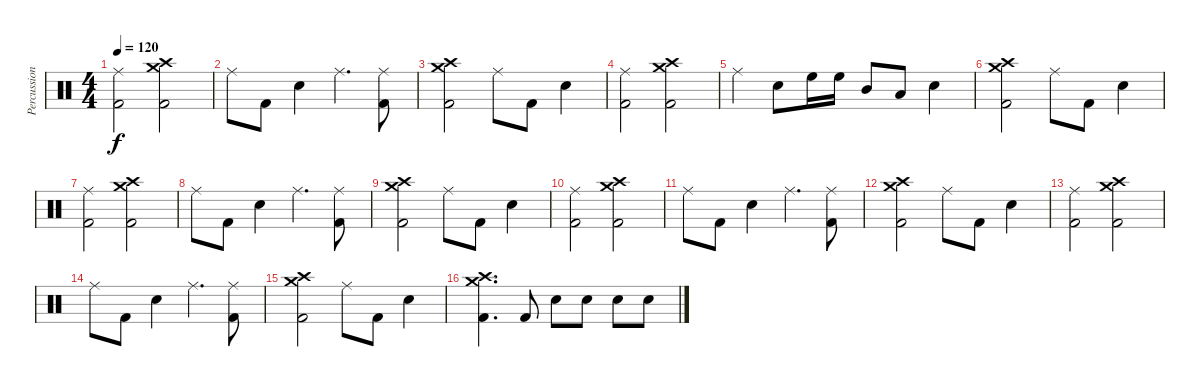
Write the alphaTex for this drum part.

\track ("Percussion" "Percussion") {instrument percussion}
\staff {score}
\articulation defaults
\ts (4 4)
\tempo 120
\clef neutral
\ks c
("Kick (hit) 2" "Ride (middle)").2{dy f} ("Crash high (hit)" "Crash medium (hit)" "Kick (hit) 2").2 |
"Ride (middle)".8 "Kick (hit) 2".8 "Snare (hit) 2".4 "Ride (middle)".4{d} ("Kick (hit) 2" "Ride (middle)").8 |
("Crash high (hit)" "Crash medium (hit)" "Kick (hit) 2").2 "Ride (middle)".8 "Kick (hit) 2".8 "Snare (hit) 2".4 |
("Kick (hit) 2" "Ride (middle)").2 ("Crash high (hit)" "Crash medium (hit)" "Kick (hit) 2").2 |
"Ride (middle)".4 "Snare (hit) 2".8 "High Floor Tom (hit)".16 "High Floor Tom (hit)".16 "Mid Tom (hit)".8 "Low Tom (hit)".8 "Snare (hit) 2".4 |
("Crash high (hit)" "Crash medium (hit)" "Kick (hit) 2").2 "Ride (middle)".8 "Kick (hit) 2".8 "Snare (hit) 2".4 |
("Kick (hit) 2" "Ride (middle)").2 ("Crash high (hit)" "Crash medium (hit)" "Kick (hit) 2").2 |
"Ride (middle)".8 "Kick (hit) 2".8 "Snare (hit) 2".4 "Ride (middle)".4{d} ("Kick (hit) 2" "Ride (middle)").8 |
("Crash high (hit)" "Crash medium (hit)" "Kick (hit) 2").2 "Ride (middle)".8 "Kick (hit) 2".8 "Snare (hit) 2".4 |
("Kick (hit) 2" "Ride (middle)").2 ("Crash high (hit)" "Crash medium (hit)" "Kick (hit) 2").2 |
"Ride (middle)".8 "Kick (hit) 2".8 "Snare (hit) 2".4 "Ride (middle)".4{d} ("Kick (hit) 2" "Ride (middle)").8 |
("Crash high (hit)" "Crash medium (hit)" "Kick (hit) 2").2 "Ride (middle)".8 "Kick (hit) 2".8 "Snare (hit) 2".4 |
("Kick (hit) 2" "Ride (middle)").2 ("Crash high (hit)" "Crash medium (hit)" "Kick (hit) 2").2 |
"Ride (middle)".8 "Kick (hit) 2".8 "Snare (hit) 2".4 "Ride (middle)".4{d} ("Kick (hit) 2" "Ride (middle)").8 |
("Crash high (hit)" "Crash medium (hit)" "Kick (hit) 2").2 "Ride (middle)".8 "Kick (hit) 2".8 "Snare (hit) 2".4 |
("Crash high (hit)" "Crash medium (hit)" "Kick (hit) 2").4{d} "Kick (hit) 2".8 "Snare (hit) 2".8 "Snare (hit) 2".8 "Snare (hit) 2".8 "Snare (hit) 2".8
